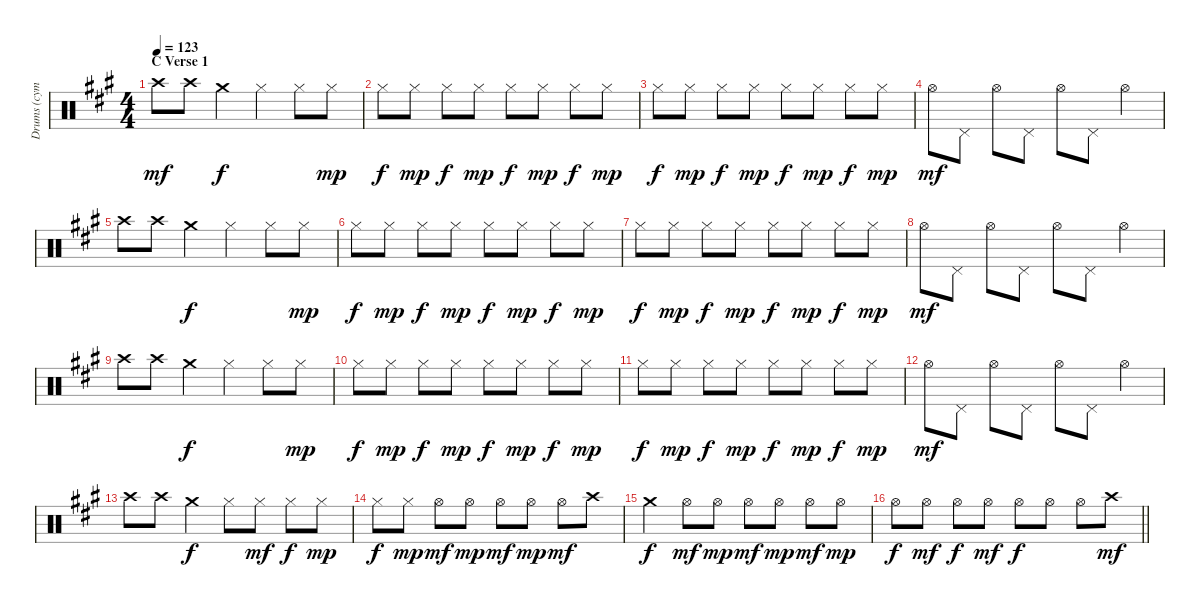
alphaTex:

\track ("Drums (cymbals)" "Drums (cym") {instrument percussion}
\staff {score}
\articulation defaults
\ts (4 4)
\section ("" "C Verse 1")
\tempo 123
\clef neutral
\ks a "Crash high (hit)".8{dy mf} "Crash high (hit)".8 "Crash medium (hit)".4{dy f} "Hi-Hat (closed)".4 "Hi-Hat (closed)".8 "Hi-Hat (closed)".8{dy mp}
|
"Hi-Hat (closed)".8{dy f} "Hi-Hat (closed)".8{dy mp} "Hi-Hat (closed)".8{dy f} "Hi-Hat (closed)".8{dy mp} "Hi-Hat (closed)".8{dy f} "Hi-Hat (closed)".8{dy mp} "Hi-Hat (closed)".8{dy f} "Hi-Hat (closed)".8{dy mp} |
"Hi-Hat (closed)".8{dy f} "Hi-Hat (closed)".8{dy mp} "Hi-Hat (closed)".8{dy f} "Hi-Hat (closed)".8{dy mp} "Hi-Hat (closed)".8{dy f} "Hi-Hat (closed)".8{dy mp} "Hi-Hat (closed)".8{dy f} "Hi-Hat (closed)".8{dy mp} |
"Hi-Hat (open)".8{dy mf} "Pedal Hi-Hat (hit)".8 "Hi-Hat (open)".8 "Pedal Hi-Hat (hit)".8 "Hi-Hat (open)".8 "Pedal Hi-Hat (hit)".8 "Hi-Hat (open)".4 |
"Crash high (hit)".8 "Crash high (hit)".8 "Crash medium (hit)".4{dy f} "Hi-Hat (closed)".4 "Hi-Hat (closed)".8 "Hi-Hat (closed)".8{dy mp} |
"Hi-Hat (closed)".8{dy f} "Hi-Hat (closed)".8{dy mp} "Hi-Hat (closed)".8{dy f} "Hi-Hat (closed)".8{dy mp} "Hi-Hat (closed)".8{dy f} "Hi-Hat (closed)".8{dy mp} "Hi-Hat (closed)".8{dy f} "Hi-Hat (closed)".8{dy mp} |
"Hi-Hat (closed)".8{dy f} "Hi-Hat (closed)".8{dy mp} "Hi-Hat (closed)".8{dy f} "Hi-Hat (closed)".8{dy mp} "Hi-Hat (closed)".8{dy f} "Hi-Hat (closed)".8{dy mp} "Hi-Hat (closed)".8{dy f} "Hi-Hat (closed)".8{dy mp} |
"Hi-Hat (open)".8{dy mf} "Pedal Hi-Hat (hit)".8 "Hi-Hat (open)".8 "Pedal Hi-Hat (hit)".8 "Hi-Hat (open)".8 "Pedal Hi-Hat (hit)".8 "Hi-Hat (open)".4 |
"Crash high (hit)".8 "Crash high (hit)".8 "Crash medium (hit)".4{dy f} "Hi-Hat (closed)".4 "Hi-Hat (closed)".8 "Hi-Hat (closed)".8{dy mp} |
"Hi-Hat (closed)".8{dy f} "Hi-Hat (closed)".8{dy mp} "Hi-Hat (closed)".8{dy f} "Hi-Hat (closed)".8{dy mp} "Hi-Hat (closed)".8{dy f} "Hi-Hat (closed)".8{dy mp} "Hi-Hat (closed)".8{dy f} "Hi-Hat (closed)".8{dy mp} |
"Hi-Hat (closed)".8{dy f} "Hi-Hat (closed)".8{dy mp} "Hi-Hat (closed)".8{dy f} "Hi-Hat (closed)".8{dy mp} "Hi-Hat (closed)".8{dy f} "Hi-Hat (closed)".8{dy mp} "Hi-Hat (closed)".8{dy f} "Hi-Hat (closed)".8{dy mp} |
"Hi-Hat (open)".8{dy mf} "Pedal Hi-Hat (hit)".8 "Hi-Hat (open)".8 "Pedal Hi-Hat (hit)".8 "Hi-Hat (open)".8 "Pedal Hi-Hat (hit)".8 "Hi-Hat (open)".4 |
"Crash high (hit)".8 "Crash high (hit)".8 "Crash medium (hit)".4{dy f} "Hi-Hat (closed)".8 "Hi-Hat (closed)".8{dy mf} "Hi-Hat (closed)".8{dy f} "Hi-Hat (closed)".8{dy mp} |
"Hi-Hat (closed)".8{dy f} "Hi-Hat (closed)".8{dy mp} "Hi-Hat (open)".8{dy mf} "Hi-Hat (open)".8{dy mp} "Hi-Hat (open)".8{dy mf} "Hi-Hat (open)".8{dy mp} "Hi-Hat (open)".8{dy mf} "Crash high (hit)".8 |
"Crash medium (hit)".4{dy f} "Hi-Hat (open)".8{dy mf} "Hi-Hat (open)".8{dy mp} "Hi-Hat (open)".8{dy mf} "Hi-Hat (open)".8{dy mp} "Hi-Hat (open)".8{dy mf} "Hi-Hat (open)".8{dy mp} |
\barLineRight lightlight "Hi-Hat (open)".8{dy f} "Hi-Hat (open)".8{dy mf} "Hi-Hat (open)".8{dy f} "Hi-Hat (open)".8{dy mf} "Hi-Hat (open)".8{dy f} "Hi-Hat (open)".8 "Hi-Hat (open)".8 "Crash high (hit)".8{dy mf}
